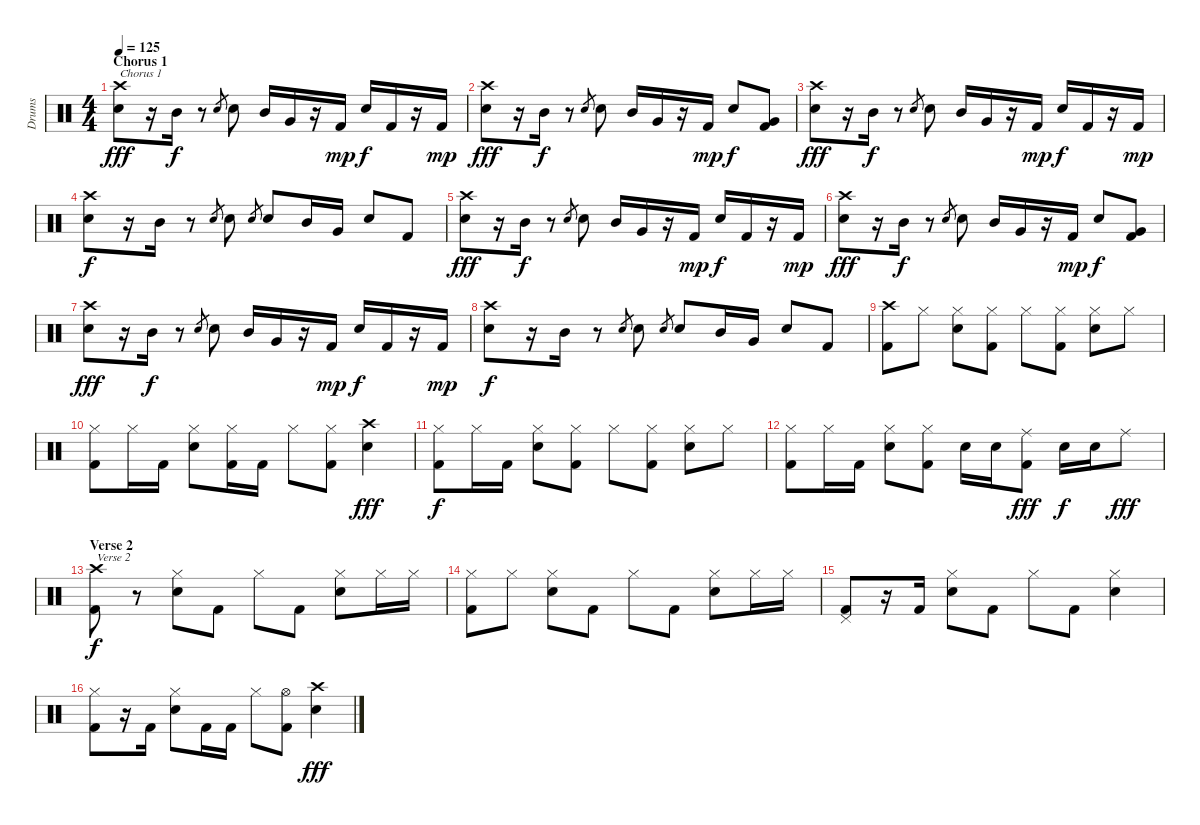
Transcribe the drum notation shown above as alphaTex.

\track ("Drums" "Drums") {instrument percussion}
\staff {score}
\articulation defaults
\ts (4 4)
\section ("" "Chorus 1")
\tempo 125
\clef neutral
\ks c
("Crash high (hit)" "Electric Snare (hit)").8{txt "Chorus 1" dy fff} r.16 "Mid Tom (hit)".16{dy f} r.8 "Electric Snare (hit)".8{gr} "Electric Snare (hit)".8 "Mid Tom (hit)".16 "Very Low Tom (hit)".16 r.16 "Kick (hit) 2".16{dy mp} "Electric Snare (hit)".16{dy f} "Kick (hit) 2".16 r.16 "Kick (hit) 2".16{dy mp} |
("Crash high (hit)" "Electric Snare (hit)").8{dy fff} r.16 "Mid Tom (hit)".16{dy f} r.8 "Electric Snare (hit)".8{gr} "Electric Snare (hit)".8 "Mid Tom (hit)".16 "Very Low Tom (hit)".16 r.16 "Kick (hit) 2".16{dy mp} "Electric Snare (hit)".8{dy f} ("Very Low Tom (hit)" "Kick (hit) 2").8 |
("Crash high (hit)" "Electric Snare (hit)").8{dy fff} r.16 "Mid Tom (hit)".16{dy f} r.8 "Electric Snare (hit)".8{gr} "Electric Snare (hit)".8 "Mid Tom (hit)".16 "Very Low Tom (hit)".16 r.16 "Kick (hit) 2".16{dy mp} "Electric Snare (hit)".16{dy f} "Kick (hit) 2".16 r.16 "Kick (hit) 2".16{dy mp} |
("Crash high (hit)" "Electric Snare (hit)").8{dy f} r.16 "Mid Tom (hit)".16 r.8 "Electric Snare (hit)".8{gr} "Electric Snare (hit)".8 "Electric Snare (hit)".8{gr} "Electric Snare (hit)".8 "Mid Tom (hit)".16 "Very Low Tom (hit)".16 "Electric Snare (hit)".8 "Kick (hit) 2".8 |
("Crash high (hit)" "Electric Snare (hit)").8{dy fff} r.16 "Mid Tom (hit)".16{dy f} r.8 "Electric Snare (hit)".8{gr} "Electric Snare (hit)".8 "Mid Tom (hit)".16 "Very Low Tom (hit)".16 r.16 "Kick (hit) 2".16{dy mp} "Electric Snare (hit)".16{dy f} "Kick (hit) 2".16 r.16 "Kick (hit) 2".16{dy mp} |
("Crash high (hit)" "Electric Snare (hit)").8{dy fff} r.16 "Mid Tom (hit)".16{dy f} r.8 "Electric Snare (hit)".8{gr} "Electric Snare (hit)".8 "Mid Tom (hit)".16 "Very Low Tom (hit)".16 r.16 "Kick (hit) 2".16{dy mp} "Electric Snare (hit)".8{dy f} ("Very Low Tom (hit)" "Kick (hit) 2").8 |
("Crash high (hit)" "Electric Snare (hit)").8{dy fff} r.16 "Mid Tom (hit)".16{dy f} r.8 "Electric Snare (hit)".8{gr} "Electric Snare (hit)".8 "Mid Tom (hit)".16 "Very Low Tom (hit)".16 r.16 "Kick (hit) 2".16{dy mp} "Electric Snare (hit)".16{dy f} "Kick (hit) 2".16 r.16 "Kick (hit) 2".16{dy mp} |
("Crash high (hit)" "Electric Snare (hit)").8{dy f} r.16 "Mid Tom (hit)".16 r.8 "Electric Snare (hit)".8{gr} "Electric Snare (hit)".8 "Electric Snare (hit)".8{gr} "Electric Snare (hit)".8 "Mid Tom (hit)".16 "Very Low Tom (hit)".16 "Electric Snare (hit)".8 "Kick (hit) 2".8 |
("Crash high (hit)" "Kick (hit) 2").8 "Hi-Hat (closed)".8 ("Hi-Hat (closed)" "Electric Snare (hit)").8 ("Hi-Hat (closed)" "Kick (hit) 2").8 "Hi-Hat (closed)".8 ("Hi-Hat (closed)" "Kick (hit) 2").8 ("Hi-Hat (closed)" "Electric Snare (hit)").8 "Hi-Hat (closed)".8 |
("Hi-Hat (closed)" "Kick (hit) 2").8 "Hi-Hat (closed)".16 "Kick (hit) 2".16 ("Hi-Hat (closed)" "Electric Snare (hit)").8 ("Hi-Hat (closed)" "Kick (hit) 2").16 "Kick (hit) 2".16 "Hi-Hat (closed)".8 ("Hi-Hat (closed)" "Kick (hit) 2").8 ("Crash high (hit)" "Electric Snare (hit)").4{dy fff} |
("Hi-Hat (closed)" "Kick (hit) 2").8{dy f} "Hi-Hat (closed)".16 "Kick (hit) 2".16 ("Hi-Hat (closed)" "Electric Snare (hit)").8 ("Hi-Hat (closed)" "Kick (hit) 2").8 "Hi-Hat (closed)".8 ("Hi-Hat (closed)" "Kick (hit) 2").8 ("Hi-Hat (closed)" "Electric Snare (hit)").8 "Hi-Hat (closed)".8 |
("Hi-Hat (closed)" "Kick (hit) 2").8 "Hi-Hat (closed)".16 "Kick (hit) 2".16 ("Hi-Hat (closed)" "Electric Snare (hit)").8 ("Hi-Hat (closed)" "Kick (hit) 2").8 "Electric Snare (hit)".16 "Electric Snare (hit)".16 ("Ride (middle)" "Kick (hit) 2").8{dy fff} "Electric Snare (hit)".16{dy f} "Electric Snare (hit)".16 "Ride (middle)".8{dy fff} |
\section ("" "Verse 2")
("Crash high (hit)" "Kick (hit) 2").8{txt "Verse 2" dy f} r.8 ("Hi-Hat (closed)" "Electric Snare (hit)").8 "Kick (hit) 2".8 "Hi-Hat (closed)".8 "Kick (hit) 2".8 ("Hi-Hat (closed)" "Electric Snare (hit)").8 "Hi-Hat (closed)".16 "Hi-Hat (closed)".16 |
("Hi-Hat (closed)" "Kick (hit) 2").8 "Hi-Hat (closed)".8 ("Hi-Hat (closed)" "Electric Snare (hit)").8 "Kick (hit) 2".8 "Hi-Hat (closed)".8 "Kick (hit) 2".8 ("Hi-Hat (closed)" "Electric Snare (hit)").8 "Hi-Hat (closed)".16 "Hi-Hat (closed)".16 |
("Pedal Hi-Hat (hit)" "Kick (hit) 2").8 r.16 "Kick (hit) 2".16 ("Hi-Hat (closed)" "Electric Snare (hit)").8 "Kick (hit) 2".8 "Hi-Hat (closed)".8 "Kick (hit) 2".8 ("Hi-Hat (closed)" "Electric Snare (hit)").4 |
("Hi-Hat (closed)" "Kick (hit) 2").8 r.16 "Kick (hit) 2".16 ("Hi-Hat (closed)" "Electric Snare (hit)").8 "Kick (hit) 2".16 "Kick (hit) 2".16 "Hi-Hat (closed)".8 ("Hi-Hat (open)" "Kick (hit) 2").8 ("Crash high (hit)" "Electric Snare (hit)").4{dy fff}
